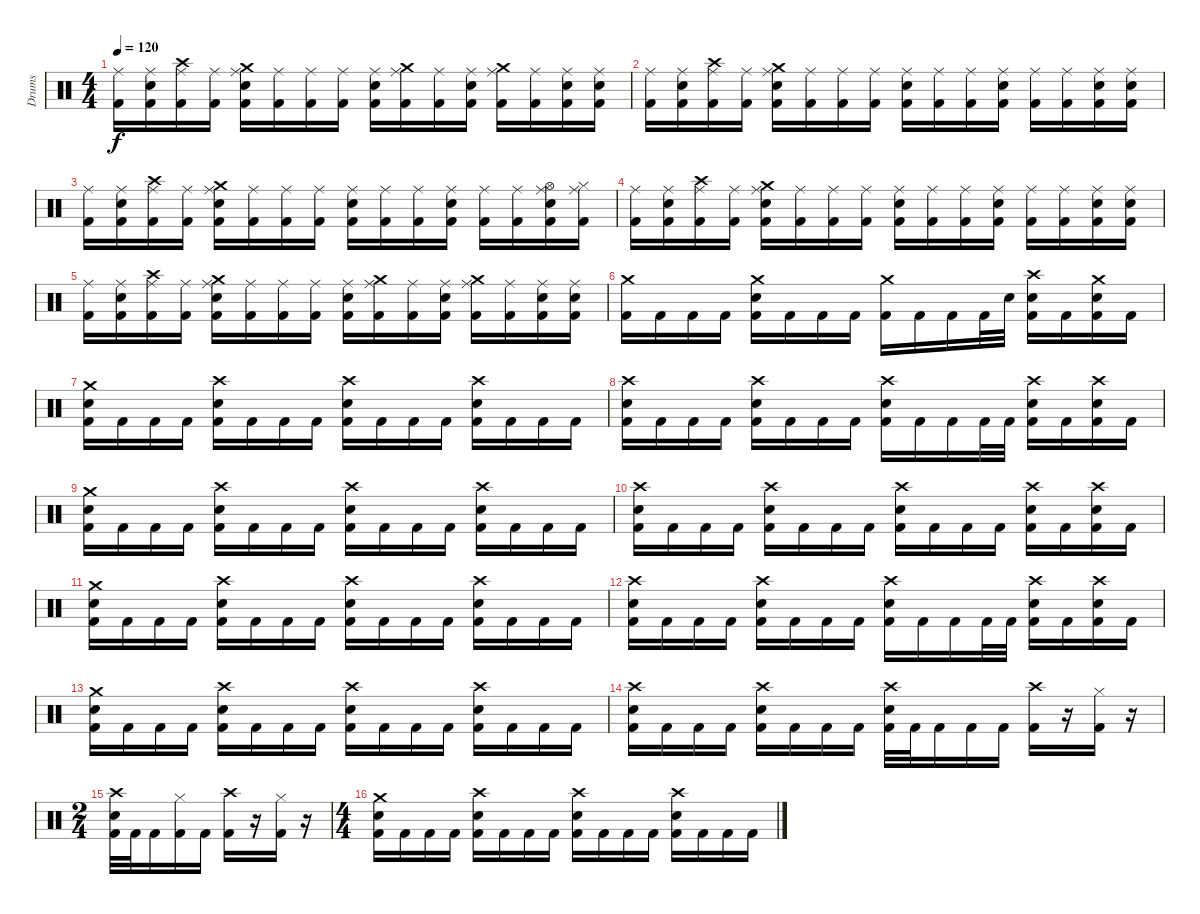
\track ("Drums" "Drums") {instrument percussion}
\staff {score}
\articulation defaults
\ts (4 4)
\tempo 120
\clef neutral
\ks c
("Ride (middle)" "Kick (hit) 2").16{dy f} ("Ride (middle)" "Snare (hit) 2" "Kick (hit) 2").16 ("Crash high (hit)" "Ride (middle)" "Kick (hit) 2").16 ("Ride (middle)" "Kick (hit) 2").16 ("Crash medium (hit)" "Ride (middle)" "Snare (hit) 2" "Kick (hit) 2").16 ("Ride (middle)" "Kick (hit) 2").16 ("Ride (middle)" "Kick (hit) 2").16 ("Ride (middle)" "Kick (hit) 2").16 ("Ride (middle)" "Snare (hit) 2" "Kick (hit) 2").16 ("Crash medium (hit)" "Ride (middle)" "Kick (hit) 2").16 ("Ride (middle)" "Kick (hit) 2").16 ("Ride (middle)" "Snare (hit) 2" "Kick (hit) 2").16 ("Crash medium (hit)" "Ride (middle)" "Kick (hit) 2").16 ("Ride (middle)" "Kick (hit) 2").16 ("Ride (middle)" "Snare (hit) 2" "Kick (hit) 2").16 ("Ride (middle)" "Snare (hit) 2" "Kick (hit) 2").16 |
("Ride (middle)" "Kick (hit) 2").16 ("Ride (middle)" "Snare (hit) 2" "Kick (hit) 2").16 ("Crash high (hit)" "Ride (middle)" "Kick (hit) 2").16 ("Ride (middle)" "Kick (hit) 2").16 ("Crash medium (hit)" "Ride (middle)" "Snare (hit) 2" "Kick (hit) 2").16 ("Ride (middle)" "Kick (hit) 2").16 ("Ride (middle)" "Kick (hit) 2").16 ("Ride (middle)" "Kick (hit) 2").16 ("Ride (middle)" "Snare (hit) 2" "Kick (hit) 2").16 ("Ride (middle)" "Kick (hit) 2").16 ("Ride (middle)" "Kick (hit) 2").16 ("Ride (middle)" "Snare (hit) 2" "Kick (hit) 2").16 ("Ride (middle)" "Kick (hit) 2").16 ("Ride (middle)" "Kick (hit) 2").16 ("Ride (middle)" "Snare (hit) 2" "Kick (hit) 2").16 ("Ride (middle)" "Snare (hit) 2" "Kick (hit) 2").16 |
("Ride (middle)" "Kick (hit) 2").16 ("Ride (middle)" "Snare (hit) 2" "Kick (hit) 2").16 ("Crash high (hit)" "Ride (middle)" "Kick (hit) 2").16 ("Ride (middle)" "Kick (hit) 2").16 ("Crash medium (hit)" "Ride (middle)" "Snare (hit) 2" "Kick (hit) 2").16 ("Ride (middle)" "Kick (hit) 2").16 ("Ride (middle)" "Kick (hit) 2").16 ("Ride (middle)" "Kick (hit) 2").16 ("Ride (middle)" "Snare (hit) 2" "Kick (hit) 2").16 ("Ride (middle)" "Kick (hit) 2").16 ("Ride (middle)" "Kick (hit) 2").16 ("Ride (middle)" "Snare (hit) 2" "Kick (hit) 2").16 ("Ride (middle)" "Kick (hit) 2").16 ("Ride (middle)" "Kick (hit) 2").16 ("Hi-Hat (open)" "Ride (middle)" "Snare (hit) 2" "Kick (hit) 2").16 ("Hi-Hat (closed)" "Ride (middle)" "Kick (hit) 2").16 |
("Ride (middle)" "Kick (hit) 2").16 ("Ride (middle)" "Snare (hit) 2" "Kick (hit) 2").16 ("Crash high (hit)" "Ride (middle)" "Kick (hit) 2").16 ("Ride (middle)" "Kick (hit) 2").16 ("Crash medium (hit)" "Ride (middle)" "Snare (hit) 2" "Kick (hit) 2").16 ("Ride (middle)" "Kick (hit) 2").16 ("Ride (middle)" "Kick (hit) 2").16 ("Ride (middle)" "Kick (hit) 2").16 ("Ride (middle)" "Snare (hit) 2" "Kick (hit) 2").16 ("Ride (middle)" "Kick (hit) 2").16 ("Ride (middle)" "Kick (hit) 2").16 ("Ride (middle)" "Snare (hit) 2" "Kick (hit) 2").16 ("Ride (middle)" "Kick (hit) 2").16 ("Ride (middle)" "Kick (hit) 2").16 ("Ride (middle)" "Snare (hit) 2" "Kick (hit) 2").16 ("Ride (middle)" "Snare (hit) 2" "Kick (hit) 2").16 |
("Ride (middle)" "Kick (hit) 2").16 ("Ride (middle)" "Snare (hit) 2" "Kick (hit) 2").16 ("Crash high (hit)" "Ride (middle)" "Kick (hit) 2").16 ("Ride (middle)" "Kick (hit) 2").16 ("Crash medium (hit)" "Ride (middle)" "Snare (hit) 2" "Kick (hit) 2").16 ("Ride (middle)" "Kick (hit) 2").16 ("Ride (middle)" "Kick (hit) 2").16 ("Ride (middle)" "Kick (hit) 2").16 ("Ride (middle)" "Snare (hit) 2" "Kick (hit) 2").16 ("Crash medium (hit)" "Ride (middle)" "Kick (hit) 2").16 ("Ride (middle)" "Kick (hit) 2").16 ("Ride (middle)" "Snare (hit) 2" "Kick (hit) 2").16 ("Crash medium (hit)" "Ride (middle)" "Kick (hit) 2").16 ("Ride (middle)" "Kick (hit) 2").16 ("Ride (middle)" "Snare (hit) 2" "Kick (hit) 2").16 ("Ride (middle)" "Snare (hit) 2" "Kick (hit) 2").16 |
("Crash medium (hit)" "Kick (hit) 2").16 "Kick (hit) 2".16 "Kick (hit) 2".16 "Kick (hit) 2".16 ("Crash medium (hit)" "Snare (hit) 2" "Kick (hit) 2").16 "Kick (hit) 2".16 "Kick (hit) 2".16 "Kick (hit) 2".16 ("Crash medium (hit)" "Kick (hit) 2").16 "Kick (hit) 2".16 "Kick (hit) 2".16 "Kick (hit) 2".32 "Snare (hit) 2".32 ("Crash high (hit)" "Snare (hit) 2" "Kick (hit) 2").16 "Kick (hit) 2".16 ("Crash medium (hit)" "Snare (hit) 2" "Kick (hit) 2").16 "Kick (hit) 2".16 |
("Crash medium (hit)" "Snare (hit) 2" "Kick (hit) 2").16 "Kick (hit) 2".16 "Kick (hit) 2".16 "Kick (hit) 2".16 ("Crash high (hit)" "Snare (hit) 2" "Kick (hit) 2").16 "Kick (hit) 2".16 "Kick (hit) 2".16 "Kick (hit) 2".16 ("Crash high (hit)" "Snare (hit) 2" "Kick (hit) 2").16 "Kick (hit) 2".16 "Kick (hit) 2".16 "Kick (hit) 2".16 ("Crash high (hit)" "Snare (hit) 2" "Kick (hit) 2").16 "Kick (hit) 2".16 "Kick (hit) 2".16 "Kick (hit) 2".16 |
("Crash high (hit)" "Snare (hit) 2" "Kick (hit) 2").16 "Kick (hit) 2".16 "Kick (hit) 2".16 "Kick (hit) 2".16 ("Crash high (hit)" "Snare (hit) 2" "Kick (hit) 2").16 "Kick (hit) 2".16 "Kick (hit) 2".16 "Kick (hit) 2".16 ("Crash high (hit)" "Snare (hit) 2" "Kick (hit) 2").16 "Kick (hit) 2".16 "Kick (hit) 2".16 "Kick (hit) 2".32 "Kick (hit) 2".32 ("Crash high (hit)" "Snare (hit) 2" "Kick (hit) 2").16 "Kick (hit) 2".16 ("Crash high (hit)" "Snare (hit) 2" "Kick (hit) 2").16 "Kick (hit) 2".16 |
("Crash medium (hit)" "Snare (hit) 2" "Kick (hit) 2").16 "Kick (hit) 2".16 "Kick (hit) 2".16 "Kick (hit) 2".16 ("Crash high (hit)" "Snare (hit) 2" "Kick (hit) 2").16 "Kick (hit) 2".16 "Kick (hit) 2".16 "Kick (hit) 2".16 ("Crash high (hit)" "Snare (hit) 2" "Kick (hit) 2").16 "Kick (hit) 2".16 "Kick (hit) 2".16 "Kick (hit) 2".16 ("Crash high (hit)" "Snare (hit) 2" "Kick (hit) 2").16 "Kick (hit) 2".16 "Kick (hit) 2".16 "Kick (hit) 2".16 |
("Crash high (hit)" "Snare (hit) 2" "Kick (hit) 2").16 "Kick (hit) 2".16 "Kick (hit) 2".16 "Kick (hit) 2".16 ("Crash high (hit)" "Snare (hit) 2" "Kick (hit) 2").16 "Kick (hit) 2".16 "Kick (hit) 2".16 "Kick (hit) 2".16 ("Crash high (hit)" "Snare (hit) 2" "Kick (hit) 2").16 "Kick (hit) 2".16 "Kick (hit) 2".16 "Kick (hit) 2".16 ("Crash high (hit)" "Snare (hit) 2" "Kick (hit) 2").16 "Kick (hit) 2".16 ("Crash high (hit)" "Snare (hit) 2" "Kick (hit) 2").16 "Kick (hit) 2".16 |
("Crash medium (hit)" "Snare (hit) 2" "Kick (hit) 2").16 "Kick (hit) 2".16 "Kick (hit) 2".16 "Kick (hit) 2".16 ("Crash high (hit)" "Snare (hit) 2" "Kick (hit) 2").16 "Kick (hit) 2".16 "Kick (hit) 2".16 "Kick (hit) 2".16 ("Crash high (hit)" "Snare (hit) 2" "Kick (hit) 2").16 "Kick (hit) 2".16 "Kick (hit) 2".16 "Kick (hit) 2".16 ("Crash high (hit)" "Snare (hit) 2" "Kick (hit) 2").16 "Kick (hit) 2".16 "Kick (hit) 2".16 "Kick (hit) 2".16 |
("Crash high (hit)" "Snare (hit) 2" "Kick (hit) 2").16 "Kick (hit) 2".16 "Kick (hit) 2".16 "Kick (hit) 2".16 ("Crash high (hit)" "Snare (hit) 2" "Kick (hit) 2").16 "Kick (hit) 2".16 "Kick (hit) 2".16 "Kick (hit) 2".16 ("Crash high (hit)" "Snare (hit) 2" "Kick (hit) 2").16 "Kick (hit) 2".16 "Kick (hit) 2".16 "Kick (hit) 2".32 "Kick (hit) 2".32 ("Crash high (hit)" "Snare (hit) 2" "Kick (hit) 2").16 "Kick (hit) 2".16 ("Crash high (hit)" "Snare (hit) 2" "Kick (hit) 2").16 "Kick (hit) 2".16 |
("Crash medium (hit)" "Snare (hit) 2" "Kick (hit) 2").16 "Kick (hit) 2".16 "Kick (hit) 2".16 "Kick (hit) 2".16 ("Crash high (hit)" "Snare (hit) 2" "Kick (hit) 2").16 "Kick (hit) 2".16 "Kick (hit) 2".16 "Kick (hit) 2".16 ("Crash high (hit)" "Snare (hit) 2" "Kick (hit) 2").16 "Kick (hit) 2".16 "Kick (hit) 2".16 "Kick (hit) 2".16 ("Crash high (hit)" "Snare (hit) 2" "Kick (hit) 2").16 "Kick (hit) 2".16 "Kick (hit) 2".16 "Kick (hit) 2".16 |
("Crash high (hit)" "Snare (hit) 2" "Kick (hit) 2").16 "Kick (hit) 2".16 "Kick (hit) 2".16 "Kick (hit) 2".16 ("Crash high (hit)" "Snare (hit) 2" "Kick (hit) 2").16 "Kick (hit) 2".16 "Kick (hit) 2".16 "Kick (hit) 2".16 ("Crash high (hit)" "Snare (hit) 2" "Kick (hit) 2").32 "Kick (hit) 2".32 "Kick (hit) 2".16 "Kick (hit) 2".16 "Kick (hit) 2".16 ("Crash high (hit)" "Kick (hit) 2").16 r.16 ("Hi-Hat (closed)" "Kick (hit) 2").16 r.16 |
\ts (2 4)
("Crash high (hit)" "Snare (hit) 2" "Kick (hit) 2").32 "Kick (hit) 2".32 "Kick (hit) 2".16 ("Hi-Hat (closed)" "Kick (hit) 2").16 "Kick (hit) 2".16 ("Crash high (hit)" "Kick (hit) 2").16 r.16 ("Hi-Hat (closed)" "Kick (hit) 2").16 r.16 |
\ts (4 4)
("Crash medium (hit)" "Snare (hit) 2" "Kick (hit) 2").16 "Kick (hit) 2".16 "Kick (hit) 2".16 "Kick (hit) 2".16 ("Crash high (hit)" "Snare (hit) 2" "Kick (hit) 2").16 "Kick (hit) 2".16 "Kick (hit) 2".16 "Kick (hit) 2".16 ("Crash high (hit)" "Snare (hit) 2" "Kick (hit) 2").16 "Kick (hit) 2".16 "Kick (hit) 2".16 "Kick (hit) 2".16 ("Crash high (hit)" "Snare (hit) 2" "Kick (hit) 2").16 "Kick (hit) 2".16 "Kick (hit) 2".16 "Kick (hit) 2".16
